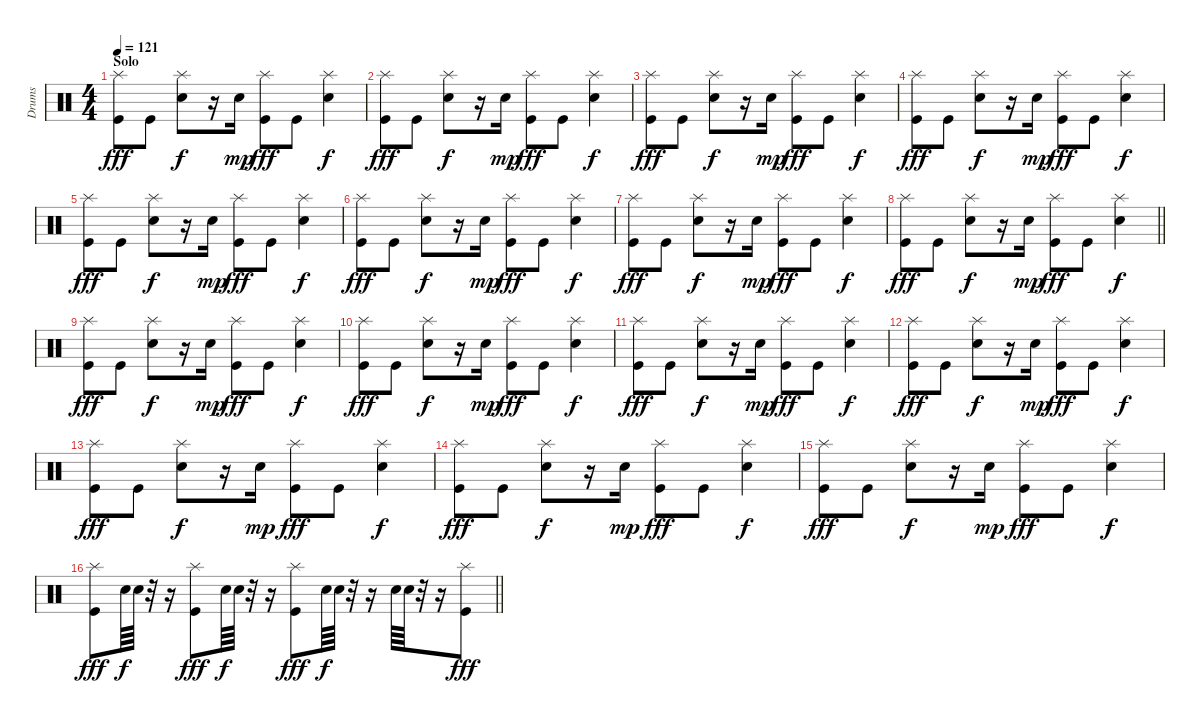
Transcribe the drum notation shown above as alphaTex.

\track ("Drums" "Drums") {instrument percussion}
\staff {score}
\articulation defaults
\ts (4 4)
\section ("" "Solo")
\tempo 121
\clef neutral
\ks c
("Splash (hit)" "Kick (hit)").8{dy fff} "Kick (hit)".8 ("Splash (hit)" "Snare (hit) 2").8{dy f} r.16 "Snare (hit) 2".16{dy mp} ("Splash (hit)" "Kick (hit)").8{dy fff} "Kick (hit)".8 ("Splash (hit)" "Snare (hit) 2").4{dy f} |
("Splash (hit)" "Kick (hit)").8{dy fff} "Kick (hit)".8 ("Splash (hit)" "Snare (hit) 2").8{dy f} r.16 "Snare (hit) 2".16{dy mp} ("Splash (hit)" "Kick (hit)").8{dy fff} "Kick (hit)".8 ("Splash (hit)" "Snare (hit) 2").4{dy f} |
("Splash (hit)" "Kick (hit)").8{dy fff} "Kick (hit)".8 ("Splash (hit)" "Snare (hit) 2").8{dy f} r.16 "Snare (hit) 2".16{dy mp} ("Splash (hit)" "Kick (hit)").8{dy fff} "Kick (hit)".8 ("Splash (hit)" "Snare (hit) 2").4{dy f} |
("Splash (hit)" "Kick (hit)").8{dy fff} "Kick (hit)".8 ("Splash (hit)" "Snare (hit) 2").8{dy f} r.16 "Snare (hit) 2".16{dy mp} ("Splash (hit)" "Kick (hit)").8{dy fff} "Kick (hit)".8 ("Splash (hit)" "Snare (hit) 2").4{dy f} |
("Splash (hit)" "Kick (hit)").8{dy fff} "Kick (hit)".8 ("Splash (hit)" "Snare (hit) 2").8{dy f} r.16 "Snare (hit) 2".16{dy mp} ("Splash (hit)" "Kick (hit)").8{dy fff} "Kick (hit)".8 ("Splash (hit)" "Snare (hit) 2").4{dy f} |
("Splash (hit)" "Kick (hit)").8{dy fff} "Kick (hit)".8 ("Splash (hit)" "Snare (hit) 2").8{dy f} r.16 "Snare (hit) 2".16{dy mp} ("Splash (hit)" "Kick (hit)").8{dy fff} "Kick (hit)".8 ("Splash (hit)" "Snare (hit) 2").4{dy f} |
("Splash (hit)" "Kick (hit)").8{dy fff} "Kick (hit)".8 ("Splash (hit)" "Snare (hit) 2").8{dy f} r.16 "Snare (hit) 2".16{dy mp} ("Splash (hit)" "Kick (hit)").8{dy fff} "Kick (hit)".8 ("Splash (hit)" "Snare (hit) 2").4{dy f} |
\barLineRight lightlight
("Splash (hit)" "Kick (hit)").8{dy fff} "Kick (hit)".8 ("Splash (hit)" "Snare (hit) 2").8{dy f} r.16 "Snare (hit) 2".16{dy mp} ("Splash (hit)" "Kick (hit)").8{dy fff} "Kick (hit)".8 ("Splash (hit)" "Snare (hit) 2").4{dy f} |
("Splash (hit)" "Kick (hit)").8{dy fff} "Kick (hit)".8 ("Splash (hit)" "Snare (hit) 2").8{dy f} r.16 "Snare (hit) 2".16{dy mp} ("Splash (hit)" "Kick (hit)").8{dy fff} "Kick (hit)".8 ("Splash (hit)" "Snare (hit) 2").4{dy f} |
("Splash (hit)" "Kick (hit)").8{dy fff} "Kick (hit)".8 ("Splash (hit)" "Snare (hit) 2").8{dy f} r.16 "Snare (hit) 2".16{dy mp} ("Splash (hit)" "Kick (hit)").8{dy fff} "Kick (hit)".8 ("Splash (hit)" "Snare (hit) 2").4{dy f} |
("Splash (hit)" "Kick (hit)").8{dy fff} "Kick (hit)".8 ("Splash (hit)" "Snare (hit) 2").8{dy f} r.16 "Snare (hit) 2".16{dy mp} ("Splash (hit)" "Kick (hit)").8{dy fff} "Kick (hit)".8 ("Splash (hit)" "Snare (hit) 2").4{dy f} |
("Splash (hit)" "Kick (hit)").8{dy fff} "Kick (hit)".8 ("Splash (hit)" "Snare (hit) 2").8{dy f} r.16 "Snare (hit) 2".16{dy mp} ("Splash (hit)" "Kick (hit)").8{dy fff} "Kick (hit)".8 ("Splash (hit)" "Snare (hit) 2").4{dy f} |
("Splash (hit)" "Kick (hit)").8{dy fff} "Kick (hit)".8 ("Splash (hit)" "Snare (hit) 2").8{dy f} r.16 "Snare (hit) 2".16{dy mp} ("Splash (hit)" "Kick (hit)").8{dy fff} "Kick (hit)".8 ("Splash (hit)" "Snare (hit) 2").4{dy f} |
("Splash (hit)" "Kick (hit)").8{dy fff} "Kick (hit)".8 ("Splash (hit)" "Snare (hit) 2").8{dy f} r.16 "Snare (hit) 2".16{dy mp} ("Splash (hit)" "Kick (hit)").8{dy fff} "Kick (hit)".8 ("Splash (hit)" "Snare (hit) 2").4{dy f} |
("Splash (hit)" "Kick (hit)").8{dy fff} "Kick (hit)".8 ("Splash (hit)" "Snare (hit) 2").8{dy f} r.16 "Snare (hit) 2".16{dy mp} ("Splash (hit)" "Kick (hit)").8{dy fff} "Kick (hit)".8 ("Splash (hit)" "Snare (hit) 2").4{dy f} |
\barLineRight lightlight
("Splash (hit)" "Kick (hit)").8{dy fff} "Snare (hit) 2".64{dy f} "Snare (hit) 2".64 r.32 r.16 ("Splash (hit)" "Kick (hit)").8{dy fff} "Snare (hit) 2".64{dy f} "Snare (hit) 2".64 r.32 r.16 ("Splash (hit)" "Kick (hit)").8{dy fff} "Snare (hit) 2".64{dy f} "Snare (hit) 2".64 r.32 r.16 "Snare (hit) 2".64 "Snare (hit) 2".64 r.32 r.16 ("Splash (hit)" "Kick (hit)").8{dy fff}
